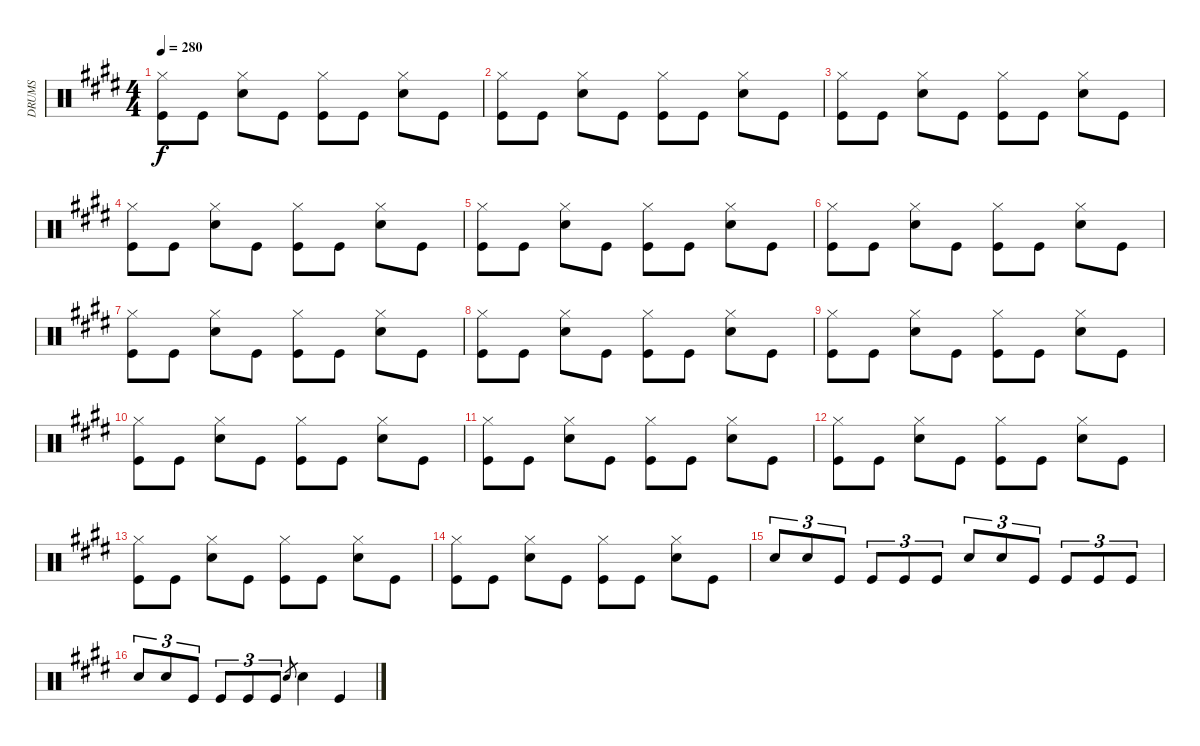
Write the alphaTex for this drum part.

\track ("DRUMS" "DRUMS") {instrument percussion}
\staff {score}
\articulation defaults
\ts (4 4)
\tempo 280
\clef neutral
\ks c#minor
("Hi-Hat (closed)" "Kick (hit)").8{dy f} "Kick (hit)".8 ("Hi-Hat (closed)" "Snare (hit) 2").8 "Kick (hit)".8 ("Hi-Hat (closed)" "Kick (hit)").8 "Kick (hit)".8 ("Hi-Hat (closed)" "Snare (hit) 2").8 "Kick (hit)".8 |
("Hi-Hat (closed)" "Kick (hit)").8 "Kick (hit)".8 ("Hi-Hat (closed)" "Snare (hit) 2").8 "Kick (hit)".8 ("Hi-Hat (closed)" "Kick (hit)").8 "Kick (hit)".8 ("Hi-Hat (closed)" "Snare (hit) 2").8 "Kick (hit)".8 |
("Hi-Hat (closed)" "Kick (hit)").8 "Kick (hit)".8 ("Hi-Hat (closed)" "Snare (hit) 2").8 "Kick (hit)".8 ("Hi-Hat (closed)" "Kick (hit)").8 "Kick (hit)".8 ("Hi-Hat (closed)" "Snare (hit) 2").8 "Kick (hit)".8 |
("Hi-Hat (closed)" "Kick (hit)").8 "Kick (hit)".8 ("Hi-Hat (closed)" "Snare (hit) 2").8 "Kick (hit)".8 ("Hi-Hat (closed)" "Kick (hit)").8 "Kick (hit)".8 ("Hi-Hat (closed)" "Snare (hit) 2").8 "Kick (hit)".8 |
("Hi-Hat (closed)" "Kick (hit)").8 "Kick (hit)".8 ("Hi-Hat (closed)" "Snare (hit) 2").8 "Kick (hit)".8 ("Hi-Hat (closed)" "Kick (hit)").8 "Kick (hit)".8 ("Hi-Hat (closed)" "Snare (hit) 2").8 "Kick (hit)".8 |
("Hi-Hat (closed)" "Kick (hit)").8 "Kick (hit)".8 ("Hi-Hat (closed)" "Snare (hit) 2").8 "Kick (hit)".8 ("Hi-Hat (closed)" "Kick (hit)").8 "Kick (hit)".8 ("Hi-Hat (closed)" "Snare (hit) 2").8 "Kick (hit)".8 |
("Hi-Hat (closed)" "Kick (hit)").8 "Kick (hit)".8 ("Hi-Hat (closed)" "Snare (hit) 2").8 "Kick (hit)".8 ("Hi-Hat (closed)" "Kick (hit)").8 "Kick (hit)".8 ("Hi-Hat (closed)" "Snare (hit) 2").8 "Kick (hit)".8 |
("Hi-Hat (closed)" "Kick (hit)").8 "Kick (hit)".8 ("Hi-Hat (closed)" "Snare (hit) 2").8 "Kick (hit)".8 ("Hi-Hat (closed)" "Kick (hit)").8 "Kick (hit)".8 ("Hi-Hat (closed)" "Snare (hit) 2").8 "Kick (hit)".8 |
("Hi-Hat (closed)" "Kick (hit)").8 "Kick (hit)".8 ("Hi-Hat (closed)" "Snare (hit) 2").8 "Kick (hit)".8 ("Hi-Hat (closed)" "Kick (hit)").8 "Kick (hit)".8 ("Hi-Hat (closed)" "Snare (hit) 2").8 "Kick (hit)".8 |
("Hi-Hat (closed)" "Kick (hit)").8 "Kick (hit)".8 ("Hi-Hat (closed)" "Snare (hit) 2").8 "Kick (hit)".8 ("Hi-Hat (closed)" "Kick (hit)").8 "Kick (hit)".8 ("Hi-Hat (closed)" "Snare (hit) 2").8 "Kick (hit)".8 |
("Hi-Hat (closed)" "Kick (hit)").8 "Kick (hit)".8 ("Hi-Hat (closed)" "Snare (hit) 2").8 "Kick (hit)".8 ("Hi-Hat (closed)" "Kick (hit)").8 "Kick (hit)".8 ("Hi-Hat (closed)" "Snare (hit) 2").8 "Kick (hit)".8 |
("Hi-Hat (closed)" "Kick (hit)").8 "Kick (hit)".8 ("Hi-Hat (closed)" "Snare (hit) 2").8 "Kick (hit)".8 ("Hi-Hat (closed)" "Kick (hit)").8 "Kick (hit)".8 ("Hi-Hat (closed)" "Snare (hit) 2").8 "Kick (hit)".8 |
("Hi-Hat (closed)" "Kick (hit)").8 "Kick (hit)".8 ("Hi-Hat (closed)" "Snare (hit) 2").8 "Kick (hit)".8 ("Hi-Hat (closed)" "Kick (hit)").8 "Kick (hit)".8 ("Hi-Hat (closed)" "Snare (hit) 2").8 "Kick (hit)".8 |
("Hi-Hat (closed)" "Kick (hit)").8 "Kick (hit)".8 ("Hi-Hat (closed)" "Snare (hit) 2").8 "Kick (hit)".8 ("Hi-Hat (closed)" "Kick (hit)").8 "Kick (hit)".8 ("Hi-Hat (closed)" "Snare (hit) 2").8 "Kick (hit)".8 |
"Snare (hit) 2".8{tu (3 2)} "Snare (hit) 2".8{tu (3 2)} "Kick (hit)".8{tu (3 2)} "Kick (hit)".8{tu (3 2)} "Kick (hit)".8{tu (3 2)} "Kick (hit)".8{tu (3 2)} "Snare (hit) 2".8{tu (3 2)} "Snare (hit) 2".8{tu (3 2)} "Kick (hit)".8{tu (3 2)} "Kick (hit)".8{tu (3 2)} "Kick (hit)".8{tu (3 2)} "Kick (hit)".8{tu (3 2)} |
"Snare (hit) 2".8{tu (3 2)} "Snare (hit) 2".8{tu (3 2)} "Kick (hit)".8{tu (3 2)} "Kick (hit)".8{tu (3 2)} "Kick (hit)".8{tu (3 2)} "Kick (hit)".8{tu (3 2)} "Snare (hit) 2".8{gr} "Snare (hit) 2".4 "Kick (hit)".4
